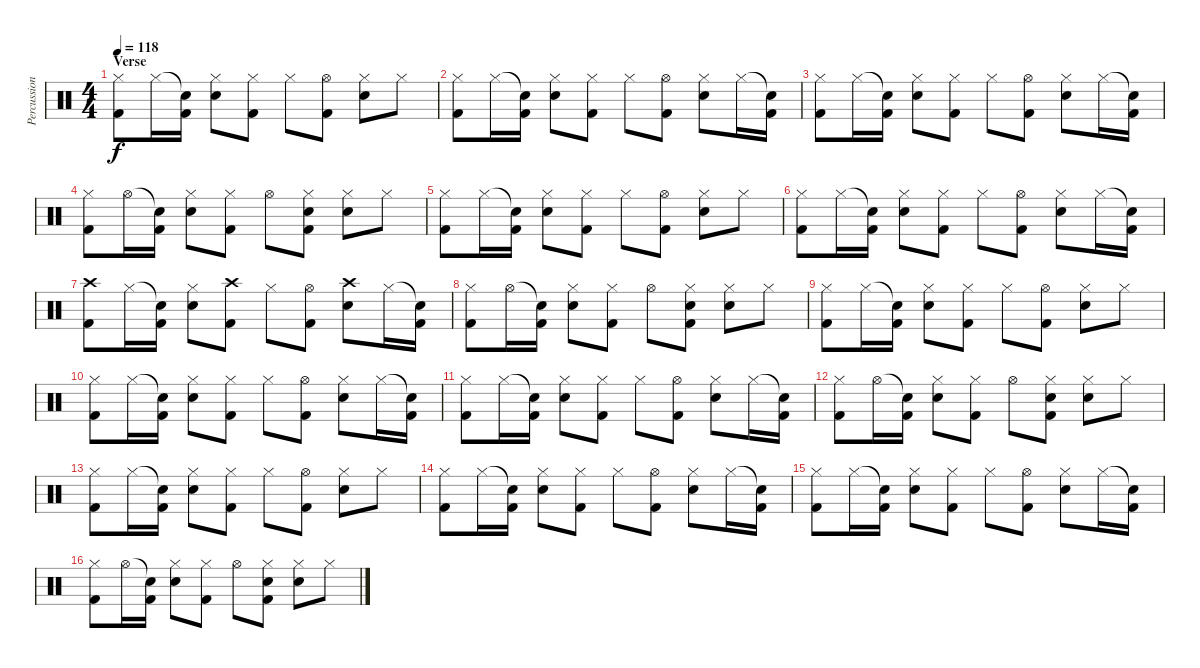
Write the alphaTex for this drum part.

\track ("Percussions" "Percussion") {instrument percussion}
\staff {score}
\articulation defaults
\ts (4 4)
\section ("" "Verse")
\tempo 118
\clef neutral
\ks c
("Hi-Hat (closed)" "Kick (hit) 2").8{dy f} "Hi-Hat (closed)".16 ("Snare (hit)"{t} "Kick (hit) 2").16 ("Hi-Hat (closed)" "Hand Clap (hit)").8 ("Hi-Hat (closed)" "Kick (hit) 2").8 "Hi-Hat (closed)".8 ("Hi-Hat (open)" "Kick (hit) 2").8 ("Hi-Hat (closed)" "Hand Clap (hit)").8 "Hi-Hat (closed)".8 |
("Hi-Hat (closed)" "Kick (hit) 2").8 "Hi-Hat (closed)".16 ("Snare (hit)"{t} "Kick (hit) 2").16 ("Hi-Hat (closed)" "Hand Clap (hit)").8 ("Hi-Hat (closed)" "Kick (hit) 2").8 "Hi-Hat (closed)".8 ("Hi-Hat (open)" "Kick (hit) 2").8 ("Hi-Hat (closed)" "Hand Clap (hit)").8 "Hi-Hat (closed)".16 ("Snare (hit)"{t} "Kick (hit) 2").16 |
("Hi-Hat (closed)" "Kick (hit) 2").8 "Hi-Hat (closed)".16 ("Snare (hit)"{t} "Kick (hit) 2").16 ("Hi-Hat (closed)" "Hand Clap (hit)").8 ("Hi-Hat (closed)" "Kick (hit) 2").8 "Hi-Hat (closed)".8 ("Hi-Hat (open)" "Kick (hit) 2").8 ("Hi-Hat (closed)" "Hand Clap (hit)").8 "Hi-Hat (closed)".16 ("Snare (hit)"{t} "Kick (hit) 2").16 |
("Hi-Hat (closed)" "Kick (hit) 2").8 "Hi-Hat (open)".16 ("Snare (hit)"{t} "Kick (hit) 2").16 ("Hi-Hat (closed)" "Hand Clap (hit)").8 ("Hi-Hat (closed)" "Kick (hit) 2").8 "Hi-Hat (open)".8 ("Hi-Hat (closed)" "Hand Clap (hit)" "Kick (hit) 2").8 ("Hi-Hat (closed)" "Hand Clap (hit)").8 "Hi-Hat (closed)".8 |
("Hi-Hat (closed)" "Kick (hit) 2").8 "Hi-Hat (closed)".16 ("Snare (hit)"{t} "Kick (hit) 2").16 ("Hi-Hat (closed)" "Hand Clap (hit)").8 ("Hi-Hat (closed)" "Kick (hit) 2").8 "Hi-Hat (closed)".8 ("Hi-Hat (open)" "Kick (hit) 2").8 ("Hi-Hat (closed)" "Hand Clap (hit)").8 "Hi-Hat (closed)".8 |
("Hi-Hat (closed)" "Kick (hit) 2").8 "Hi-Hat (closed)".16 ("Snare (hit)"{t} "Kick (hit) 2").16 ("Hi-Hat (closed)" "Hand Clap (hit)").8 ("Hi-Hat (closed)" "Kick (hit) 2").8 "Hi-Hat (closed)".8 ("Hi-Hat (open)" "Kick (hit) 2").8 ("Hi-Hat (closed)" "Hand Clap (hit)").8 "Hi-Hat (closed)".16 ("Snare (hit)"{t} "Kick (hit) 2").16 |
("Crash high (hit)" "Kick (hit) 2").8 "Hi-Hat (closed)".16 ("Snare (hit)"{t} "Kick (hit) 2").16 ("Hi-Hat (closed)" "Hand Clap (hit)").8 ("Crash high (hit)" "Kick (hit) 2").8 "Hi-Hat (closed)".8 ("Hi-Hat (open)" "Kick (hit) 2").8 ("Crash high (hit)" "Hand Clap (hit)").8 "Hi-Hat (closed)".16 ("Snare (hit)"{t} "Kick (hit) 2").16 |
("Hi-Hat (closed)" "Kick (hit) 2").8 "Hi-Hat (open)".16 ("Snare (hit)"{t} "Kick (hit) 2").16 ("Hi-Hat (closed)" "Hand Clap (hit)").8 ("Hi-Hat (closed)" "Kick (hit) 2").8 "Hi-Hat (open)".8 ("Hi-Hat (closed)" "Hand Clap (hit)" "Kick (hit) 2").8 ("Hi-Hat (closed)" "Hand Clap (hit)").8 "Hi-Hat (closed)".8 |
("Hi-Hat (closed)" "Kick (hit) 2").8 "Hi-Hat (closed)".16 ("Snare (hit)"{t} "Kick (hit) 2").16 ("Hi-Hat (closed)" "Hand Clap (hit)").8 ("Hi-Hat (closed)" "Kick (hit) 2").8 "Hi-Hat (closed)".8 ("Hi-Hat (open)" "Kick (hit) 2").8 ("Hi-Hat (closed)" "Hand Clap (hit)").8 "Hi-Hat (closed)".8 |
("Hi-Hat (closed)" "Kick (hit) 2").8 "Hi-Hat (closed)".16 ("Snare (hit)"{t} "Kick (hit) 2").16 ("Hi-Hat (closed)" "Hand Clap (hit)").8 ("Hi-Hat (closed)" "Kick (hit) 2").8 "Hi-Hat (closed)".8 ("Hi-Hat (open)" "Kick (hit) 2").8 ("Hi-Hat (closed)" "Hand Clap (hit)").8 "Hi-Hat (closed)".16 ("Snare (hit)"{t} "Kick (hit) 2").16 |
("Hi-Hat (closed)" "Kick (hit) 2").8 "Hi-Hat (closed)".16 ("Snare (hit)"{t} "Kick (hit) 2").16 ("Hi-Hat (closed)" "Hand Clap (hit)").8 ("Hi-Hat (closed)" "Kick (hit) 2").8 "Hi-Hat (closed)".8 ("Hi-Hat (open)" "Kick (hit) 2").8 ("Hi-Hat (closed)" "Hand Clap (hit)").8 "Hi-Hat (closed)".16 ("Snare (hit)"{t} "Kick (hit) 2").16 |
("Hi-Hat (closed)" "Kick (hit) 2").8 "Hi-Hat (open)".16 ("Snare (hit)"{t} "Kick (hit) 2").16 ("Hi-Hat (closed)" "Hand Clap (hit)").8 ("Hi-Hat (closed)" "Kick (hit) 2").8 "Hi-Hat (open)".8 ("Hi-Hat (closed)" "Hand Clap (hit)" "Kick (hit) 2").8 ("Hi-Hat (closed)" "Hand Clap (hit)").8 "Hi-Hat (closed)".8 |
("Hi-Hat (closed)" "Kick (hit) 2").8 "Hi-Hat (closed)".16 ("Snare (hit)"{t} "Kick (hit) 2").16 ("Hi-Hat (closed)" "Hand Clap (hit)").8 ("Hi-Hat (closed)" "Kick (hit) 2").8 "Hi-Hat (closed)".8 ("Hi-Hat (open)" "Kick (hit) 2").8 ("Hi-Hat (closed)" "Hand Clap (hit)").8 "Hi-Hat (closed)".8 |
("Hi-Hat (closed)" "Kick (hit) 2").8 "Hi-Hat (closed)".16 ("Snare (hit)"{t} "Kick (hit) 2").16 ("Hi-Hat (closed)" "Hand Clap (hit)").8 ("Hi-Hat (closed)" "Kick (hit) 2").8 "Hi-Hat (closed)".8 ("Hi-Hat (open)" "Kick (hit) 2").8 ("Hi-Hat (closed)" "Hand Clap (hit)").8 "Hi-Hat (closed)".16 ("Snare (hit)"{t} "Kick (hit) 2").16 |
("Hi-Hat (closed)" "Kick (hit) 2").8 "Hi-Hat (closed)".16 ("Snare (hit)"{t} "Kick (hit) 2").16 ("Hi-Hat (closed)" "Hand Clap (hit)").8 ("Hi-Hat (closed)" "Kick (hit) 2").8 "Hi-Hat (closed)".8 ("Hi-Hat (open)" "Kick (hit) 2").8 ("Hi-Hat (closed)" "Hand Clap (hit)").8 "Hi-Hat (closed)".16 ("Snare (hit)"{t} "Kick (hit) 2").16 |
("Hi-Hat (closed)" "Kick (hit) 2").8{txt ""} "Hi-Hat (open)".16 ("Snare (hit)"{t} "Kick (hit) 2").16 ("Hi-Hat (closed)" "Hand Clap (hit)").8 ("Hi-Hat (closed)" "Kick (hit) 2").8 "Hi-Hat (open)".8 ("Hi-Hat (closed)" "Hand Clap (hit)" "Kick (hit) 2").8 ("Hi-Hat (closed)" "Hand Clap (hit)").8 "Hi-Hat (closed)".8
